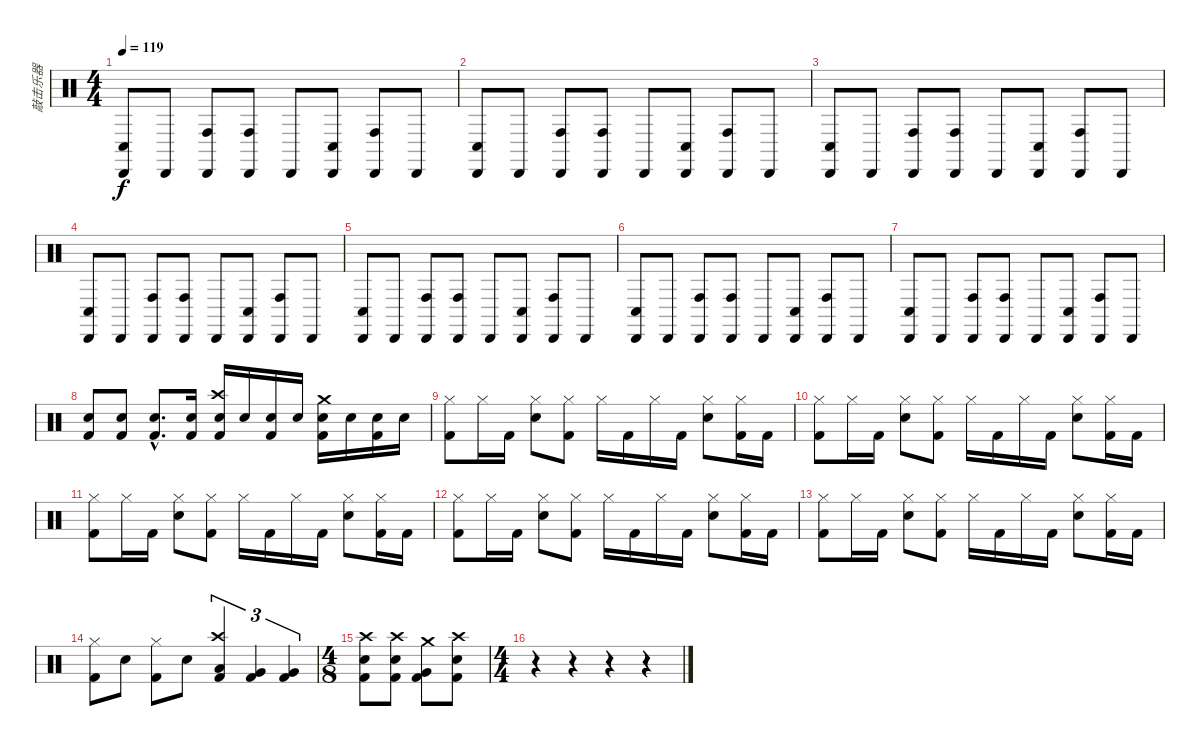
\track ("敲击乐器" "敲击乐器") {instrument percussion}
\staff {score}
\articulation defaults
\ts (4 4)
\tempo 119
\clef neutral
\ks c
("Cabasa (hit)" "Conga low (hit)").8{dy f} "Cabasa (hit)".8 ("Cabasa (hit)" "Conga high (hit)").8 ("Cabasa (hit)" "Conga high (hit)").8 "Cabasa (hit)".8 ("Cabasa (hit)" "Conga low (hit)").8 ("Cabasa (hit)" "Conga high (hit)").8 "Cabasa (hit)".8 |
("Cabasa (hit)" "Conga low (hit)").8 "Cabasa (hit)".8 ("Cabasa (hit)" "Conga high (hit)").8 ("Cabasa (hit)" "Conga high (hit)").8 "Cabasa (hit)".8 ("Cabasa (hit)" "Conga low (hit)").8 ("Cabasa (hit)" "Conga high (hit)").8 "Cabasa (hit)".8 |
("Cabasa (hit)" "Conga low (hit)").8 "Cabasa (hit)".8 ("Cabasa (hit)" "Conga high (hit)").8 ("Cabasa (hit)" "Conga high (hit)").8 "Cabasa (hit)".8 ("Cabasa (hit)" "Conga low (hit)").8 ("Cabasa (hit)" "Conga high (hit)").8 "Cabasa (hit)".8 |
("Cabasa (hit)" "Conga low (hit)").8 "Cabasa (hit)".8 ("Cabasa (hit)" "Conga high (hit)").8 ("Cabasa (hit)" "Conga high (hit)").8 "Cabasa (hit)".8 ("Cabasa (hit)" "Conga low (hit)").8 ("Cabasa (hit)" "Conga high (hit)").8 "Cabasa (hit)".8 |
("Cabasa (hit)" "Conga low (hit)").8 "Cabasa (hit)".8 ("Cabasa (hit)" "Conga high (hit)").8 ("Cabasa (hit)" "Conga high (hit)").8 "Cabasa (hit)".8 ("Cabasa (hit)" "Conga low (hit)").8 ("Cabasa (hit)" "Conga high (hit)").8 "Cabasa (hit)".8 |
("Cabasa (hit)" "Conga low (hit)").8 "Cabasa (hit)".8 ("Cabasa (hit)" "Conga high (hit)").8 ("Cabasa (hit)" "Conga high (hit)").8 "Cabasa (hit)".8 ("Cabasa (hit)" "Conga low (hit)").8 ("Cabasa (hit)" "Conga high (hit)").8 "Cabasa (hit)".8 |
("Cabasa (hit)" "Conga low (hit)").8 "Cabasa (hit)".8 ("Cabasa (hit)" "Conga high (hit)").8 ("Cabasa (hit)" "Conga high (hit)").8 "Cabasa (hit)".8 ("Cabasa (hit)" "Conga low (hit)").8 ("Cabasa (hit)" "Conga high (hit)").8 "Cabasa (hit)".8 |
("Snare (hit) 2" "Kick (hit) 2").8 ("Snare (hit) 2" "Kick (hit) 2").8 ("Snare (hit) 2"{hac} "Kick (hit) 2"{hac}).8{d} ("Snare (hit) 2" "Kick (hit) 2").16 ("Crash high (hit)" "Electric Snare (hit)" "Kick (hit) 2").16 "Snare (hit) 2".16 ("Snare (hit) 2" "Kick (hit) 2").16 "Snare (hit) 2".16 ("Crash medium (hit)" "Electric Snare (hit)" "Kick (hit) 2").16 "Snare (hit) 2".16 ("Snare (hit) 2" "Kick (hit) 2").16 "Snare (hit) 2".16 |
("Hi-Hat (closed)" "Kick (hit) 2").8 "Hi-Hat (closed)".16 "Kick (hit) 2".16 ("Hi-Hat (closed)" "Snare (hit) 2").8 ("Hi-Hat (closed)" "Kick (hit) 2").8 "Hi-Hat (closed)".16 "Kick (hit) 2".16 "Hi-Hat (closed)".16 "Kick (hit) 2".16 ("Hi-Hat (closed)" "Snare (hit) 2").8 ("Hi-Hat (closed)" "Kick (hit) 2").16 "Kick (hit) 2".16 |
("Hi-Hat (closed)" "Kick (hit) 2").8 "Hi-Hat (closed)".16 "Kick (hit) 2".16 ("Hi-Hat (closed)" "Snare (hit) 2").8 ("Hi-Hat (closed)" "Kick (hit) 2").8 "Hi-Hat (closed)".16 "Kick (hit) 2".16 "Hi-Hat (closed)".16 "Kick (hit) 2".16 ("Hi-Hat (closed)" "Snare (hit) 2").8 ("Hi-Hat (closed)" "Kick (hit) 2").16 "Kick (hit) 2".16 |
("Hi-Hat (closed)" "Kick (hit) 2").8 "Hi-Hat (closed)".16 "Kick (hit) 2".16 ("Hi-Hat (closed)" "Snare (hit) 2").8 ("Hi-Hat (closed)" "Kick (hit) 2").8 "Hi-Hat (closed)".16 "Kick (hit) 2".16 "Hi-Hat (closed)".16 "Kick (hit) 2".16 ("Hi-Hat (closed)" "Snare (hit) 2").8 ("Hi-Hat (closed)" "Kick (hit) 2").16 "Kick (hit) 2".16 |
("Hi-Hat (closed)" "Kick (hit) 2").8 "Hi-Hat (closed)".16 "Kick (hit) 2".16 ("Hi-Hat (closed)" "Snare (hit) 2").8 ("Hi-Hat (closed)" "Kick (hit) 2").8 "Hi-Hat (closed)".16 "Kick (hit) 2".16 "Hi-Hat (closed)".16 "Kick (hit) 2".16 ("Hi-Hat (closed)" "Snare (hit) 2").8 ("Hi-Hat (closed)" "Kick (hit) 2").16 "Kick (hit) 2".16 |
("Hi-Hat (closed)" "Kick (hit) 2").8 "Hi-Hat (closed)".16 "Kick (hit) 2".16 ("Hi-Hat (closed)" "Snare (hit) 2").8 ("Hi-Hat (closed)" "Kick (hit) 2").8 "Hi-Hat (closed)".16 "Kick (hit) 2".16 "Hi-Hat (closed)".16 "Kick (hit) 2".16 ("Hi-Hat (closed)" "Snare (hit) 2").8 ("Hi-Hat (closed)" "Kick (hit) 2").16 "Kick (hit) 2".16 |
("Hi-Hat (closed)" "Kick (hit) 2").8 "Snare (hit) 2".8 ("Hi-Hat (closed)" "Kick (hit) 2").8 "Snare (hit) 2".8 ("Crash high (hit)" "Low Tom (hit)" "Kick (hit) 2").4{tu (3 2)} ("Very Low Tom (hit)" "Kick (hit) 2").4{tu (3 2)} ("Very Low Tom (hit)" "Kick (hit) 2").4{tu (3 2)} |
\ts (4 8)
("Crash high (hit)" "Snare (hit) 2" "Kick (hit) 2").8 ("Crash high (hit)" "Snare (hit) 2" "Kick (hit) 2").8 ("Crash medium (hit)" "Very Low Tom (hit)" "Kick (hit) 2").8 ("Crash high (hit)" "Snare (hit) 2" "Kick (hit) 2").8 |
\ts (4 4)
r.4 r.4 r.4 r.4
